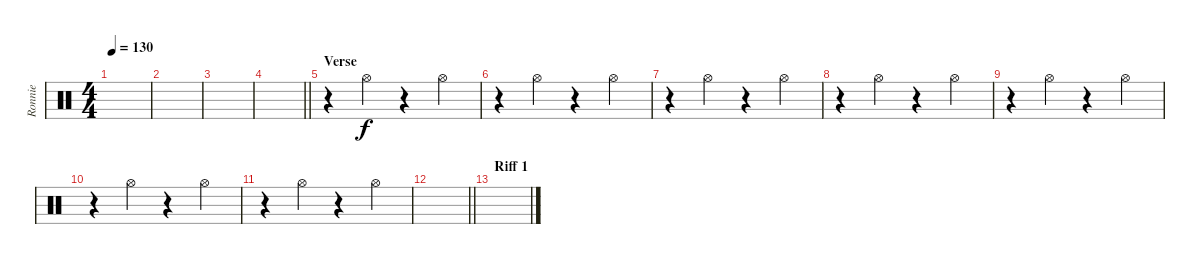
\track ("Ronnie" "Ronnie") {instrument percussion}
\staff {score}
\articulation defaults
\ts (4 4)
\tempo 130
\clef neutral
\ks c
|
|
|
\barLineRight lightlight
|
\section ("" "Verse")
r.4 "Hi-Hat (open)".4 r.4 "Hi-Hat (open)".4 |
r.4 "Hi-Hat (open)".4 r.4 "Hi-Hat (open)".4 |
r.4 "Hi-Hat (open)".4 r.4 "Hi-Hat (open)".4 |
r.4 "Hi-Hat (open)".4 r.4 "Hi-Hat (open)".4 |
r.4 "Hi-Hat (open)".4 r.4 "Hi-Hat (open)".4 |
r.4 "Hi-Hat (open)".4 r.4 "Hi-Hat (open)".4 |
r.4 "Hi-Hat (open)".4 r.4 "Hi-Hat (open)".4 |
\barLineRight lightlight
|
\section ("" "Riff 1")
